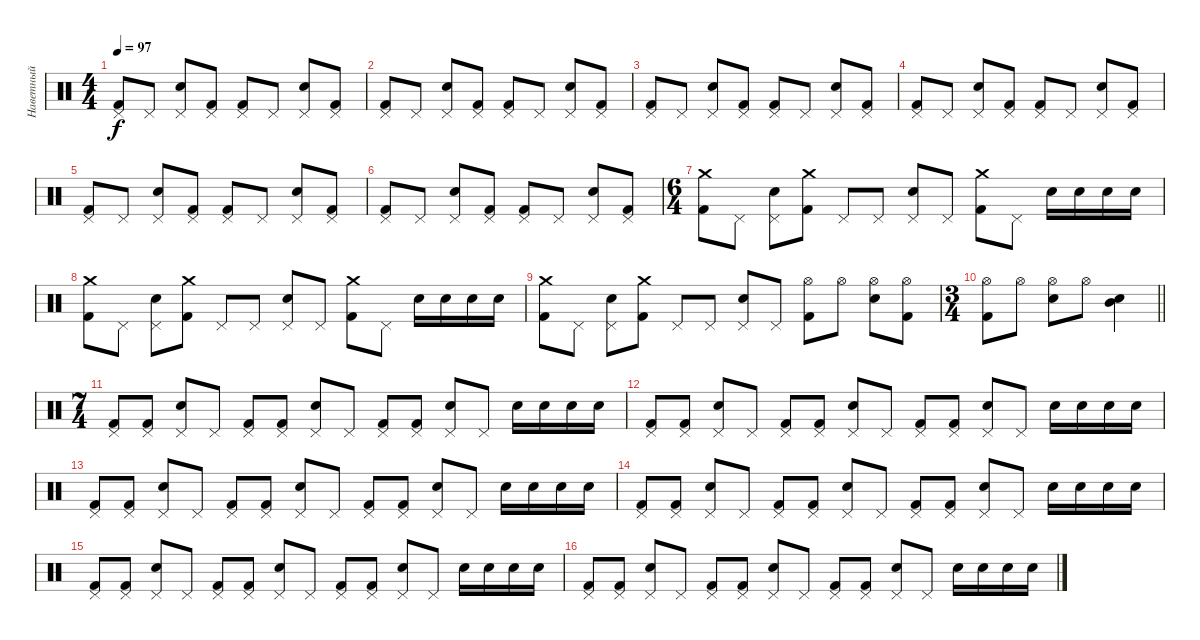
\track ("Наветный" "Наветный") {instrument percussion}
\staff {score}
\articulation defaults
\ts (4 4)
\tempo 97
\clef neutral
\ks c
("Pedal Hi-Hat (hit)" "Kick (hit) 2").8{dy f} "Pedal Hi-Hat (hit)".8 ("Pedal Hi-Hat (hit)" "Electric Snare (hit)").8 ("Pedal Hi-Hat (hit)" "Kick (hit) 2").8 ("Pedal Hi-Hat (hit)" "Kick (hit) 2").8 "Pedal Hi-Hat (hit)".8 ("Pedal Hi-Hat (hit)" "Electric Snare (hit)").8 ("Pedal Hi-Hat (hit)" "Kick (hit) 2").8 |
("Pedal Hi-Hat (hit)" "Kick (hit) 2").8 "Pedal Hi-Hat (hit)".8 ("Pedal Hi-Hat (hit)" "Electric Snare (hit)").8 ("Pedal Hi-Hat (hit)" "Kick (hit) 2").8 ("Pedal Hi-Hat (hit)" "Kick (hit) 2").8 "Pedal Hi-Hat (hit)".8 ("Pedal Hi-Hat (hit)" "Electric Snare (hit)").8 ("Pedal Hi-Hat (hit)" "Kick (hit) 2").8 |
("Pedal Hi-Hat (hit)" "Kick (hit) 2").8 "Pedal Hi-Hat (hit)".8 ("Pedal Hi-Hat (hit)" "Electric Snare (hit)").8 ("Pedal Hi-Hat (hit)" "Kick (hit) 2").8 ("Pedal Hi-Hat (hit)" "Kick (hit) 2").8 "Pedal Hi-Hat (hit)".8 ("Pedal Hi-Hat (hit)" "Electric Snare (hit)").8 ("Pedal Hi-Hat (hit)" "Kick (hit) 2").8 |
("Pedal Hi-Hat (hit)" "Kick (hit) 2").8 "Pedal Hi-Hat (hit)".8 ("Pedal Hi-Hat (hit)" "Electric Snare (hit)").8 ("Pedal Hi-Hat (hit)" "Kick (hit) 2").8 ("Pedal Hi-Hat (hit)" "Kick (hit) 2").8 "Pedal Hi-Hat (hit)".8 ("Pedal Hi-Hat (hit)" "Electric Snare (hit)").8 ("Pedal Hi-Hat (hit)" "Kick (hit) 2").8 |
("Pedal Hi-Hat (hit)" "Kick (hit) 2").8 "Pedal Hi-Hat (hit)".8 ("Pedal Hi-Hat (hit)" "Electric Snare (hit)").8 ("Pedal Hi-Hat (hit)" "Kick (hit) 2").8 ("Pedal Hi-Hat (hit)" "Kick (hit) 2").8 "Pedal Hi-Hat (hit)".8 ("Pedal Hi-Hat (hit)" "Electric Snare (hit)").8 ("Pedal Hi-Hat (hit)" "Kick (hit) 2").8 |
("Pedal Hi-Hat (hit)" "Kick (hit) 2").8 "Pedal Hi-Hat (hit)".8 ("Pedal Hi-Hat (hit)" "Electric Snare (hit)").8 ("Pedal Hi-Hat (hit)" "Kick (hit) 2").8 ("Pedal Hi-Hat (hit)" "Kick (hit) 2").8 "Pedal Hi-Hat (hit)".8 ("Pedal Hi-Hat (hit)" "Electric Snare (hit)").8 ("Pedal Hi-Hat (hit)" "Kick (hit) 2").8 |
\ts (6 4)
("Crash medium (hit)" "Kick (hit) 2").8 "Pedal Hi-Hat (hit)".8 ("Pedal Hi-Hat (hit)" "Electric Snare (hit)").8 ("Crash medium (hit)" "Kick (hit) 2").8 "Pedal Hi-Hat (hit)".8 "Pedal Hi-Hat (hit)".8 ("Pedal Hi-Hat (hit)" "Electric Snare (hit)").8 "Pedal Hi-Hat (hit)".8 ("Crash medium (hit)" "Kick (hit) 2").8 "Pedal Hi-Hat (hit)".8 "Electric Snare (hit)".16 "Electric Snare (hit)".16 "Electric Snare (hit)".16 "Electric Snare (hit)".16 |
("Crash medium (hit)" "Kick (hit) 2").8 "Pedal Hi-Hat (hit)".8 ("Pedal Hi-Hat (hit)" "Electric Snare (hit)").8 ("Crash medium (hit)" "Kick (hit) 2").8 "Pedal Hi-Hat (hit)".8 "Pedal Hi-Hat (hit)".8 ("Pedal Hi-Hat (hit)" "Electric Snare (hit)").8 "Pedal Hi-Hat (hit)".8 ("Crash medium (hit)" "Kick (hit) 2").8 "Pedal Hi-Hat (hit)".8 "Electric Snare (hit)".16 "Electric Snare (hit)".16 "Electric Snare (hit)".16 "Electric Snare (hit)".16 |
("Crash medium (hit)" "Kick (hit) 2").8 "Pedal Hi-Hat (hit)".8 ("Pedal Hi-Hat (hit)" "Electric Snare (hit)").8 ("Crash medium (hit)" "Kick (hit) 2").8 "Pedal Hi-Hat (hit)".8 "Pedal Hi-Hat (hit)".8 ("Pedal Hi-Hat (hit)" "Electric Snare (hit)").8 "Pedal Hi-Hat (hit)".8 ("Hi-Hat (open)" "Kick (hit) 2").8 "Hi-Hat (open)".8 ("Hi-Hat (open)" "Electric Snare (hit)").8 ("Hi-Hat (open)" "Kick (hit) 2").8 |
\ts (3 4)
\barLineRight lightlight
("Hi-Hat (open)" "Kick (hit) 2").8 "Hi-Hat (open)".8 ("Hi-Hat (open)" "Electric Snare (hit)").8 "Hi-Hat (open)".8 ("Electric Snare (hit)" "Mid Tom (hit)").4 |
\ts (7 4)
("Pedal Hi-Hat (hit)" "Kick (hit) 2").8 ("Pedal Hi-Hat (hit)" "Kick (hit) 2").8 ("Pedal Hi-Hat (hit)" "Electric Snare (hit)").8 "Pedal Hi-Hat (hit)".8 ("Pedal Hi-Hat (hit)" "Kick (hit) 2").8 ("Pedal Hi-Hat (hit)" "Kick (hit) 2").8 ("Pedal Hi-Hat (hit)" "Electric Snare (hit)").8 "Pedal Hi-Hat (hit)".8 ("Pedal Hi-Hat (hit)" "Kick (hit) 2").8 ("Pedal Hi-Hat (hit)" "Kick (hit) 2").8 ("Pedal Hi-Hat (hit)" "Electric Snare (hit)").8 "Pedal Hi-Hat (hit)".8 "Electric Snare (hit)".16 "Electric Snare (hit)".16 "Electric Snare (hit)".16 "Electric Snare (hit)".16 |
("Pedal Hi-Hat (hit)" "Kick (hit) 2").8 ("Pedal Hi-Hat (hit)" "Kick (hit) 2").8 ("Pedal Hi-Hat (hit)" "Electric Snare (hit)").8 "Pedal Hi-Hat (hit)".8 ("Pedal Hi-Hat (hit)" "Kick (hit) 2").8 ("Pedal Hi-Hat (hit)" "Kick (hit) 2").8 ("Pedal Hi-Hat (hit)" "Electric Snare (hit)").8 "Pedal Hi-Hat (hit)".8 ("Pedal Hi-Hat (hit)" "Kick (hit) 2").8 ("Pedal Hi-Hat (hit)" "Kick (hit) 2").8 ("Pedal Hi-Hat (hit)" "Electric Snare (hit)").8 "Pedal Hi-Hat (hit)".8 "Electric Snare (hit)".16 "Electric Snare (hit)".16 "Electric Snare (hit)".16 "Electric Snare (hit)".16 |
("Pedal Hi-Hat (hit)" "Kick (hit) 2").8 ("Pedal Hi-Hat (hit)" "Kick (hit) 2").8 ("Pedal Hi-Hat (hit)" "Electric Snare (hit)").8 "Pedal Hi-Hat (hit)".8 ("Pedal Hi-Hat (hit)" "Kick (hit) 2").8 ("Pedal Hi-Hat (hit)" "Kick (hit) 2").8 ("Pedal Hi-Hat (hit)" "Electric Snare (hit)").8 "Pedal Hi-Hat (hit)".8 ("Pedal Hi-Hat (hit)" "Kick (hit) 2").8 ("Pedal Hi-Hat (hit)" "Kick (hit) 2").8 ("Pedal Hi-Hat (hit)" "Electric Snare (hit)").8 "Pedal Hi-Hat (hit)".8 "Electric Snare (hit)".16 "Electric Snare (hit)".16 "Electric Snare (hit)".16 "Electric Snare (hit)".16 |
("Pedal Hi-Hat (hit)" "Kick (hit) 2").8 ("Pedal Hi-Hat (hit)" "Kick (hit) 2").8 ("Pedal Hi-Hat (hit)" "Electric Snare (hit)").8 "Pedal Hi-Hat (hit)".8 ("Pedal Hi-Hat (hit)" "Kick (hit) 2").8 ("Pedal Hi-Hat (hit)" "Kick (hit) 2").8 ("Pedal Hi-Hat (hit)" "Electric Snare (hit)").8 "Pedal Hi-Hat (hit)".8 ("Pedal Hi-Hat (hit)" "Kick (hit) 2").8 ("Pedal Hi-Hat (hit)" "Kick (hit) 2").8 ("Pedal Hi-Hat (hit)" "Electric Snare (hit)").8 "Pedal Hi-Hat (hit)".8 "Electric Snare (hit)".16 "Electric Snare (hit)".16 "Electric Snare (hit)".16 "Electric Snare (hit)".16 |
("Pedal Hi-Hat (hit)" "Kick (hit) 2").8 ("Pedal Hi-Hat (hit)" "Kick (hit) 2").8 ("Pedal Hi-Hat (hit)" "Electric Snare (hit)").8 "Pedal Hi-Hat (hit)".8 ("Pedal Hi-Hat (hit)" "Kick (hit) 2").8 ("Pedal Hi-Hat (hit)" "Kick (hit) 2").8 ("Pedal Hi-Hat (hit)" "Electric Snare (hit)").8 "Pedal Hi-Hat (hit)".8 ("Pedal Hi-Hat (hit)" "Kick (hit) 2").8 ("Pedal Hi-Hat (hit)" "Kick (hit) 2").8 ("Pedal Hi-Hat (hit)" "Electric Snare (hit)").8 "Pedal Hi-Hat (hit)".8 "Electric Snare (hit)".16 "Electric Snare (hit)".16 "Electric Snare (hit)".16 "Electric Snare (hit)".16 |
("Pedal Hi-Hat (hit)" "Kick (hit) 2").8 ("Pedal Hi-Hat (hit)" "Kick (hit) 2").8 ("Pedal Hi-Hat (hit)" "Electric Snare (hit)").8 "Pedal Hi-Hat (hit)".8 ("Pedal Hi-Hat (hit)" "Kick (hit) 2").8 ("Pedal Hi-Hat (hit)" "Kick (hit) 2").8 ("Pedal Hi-Hat (hit)" "Electric Snare (hit)").8 "Pedal Hi-Hat (hit)".8 ("Pedal Hi-Hat (hit)" "Kick (hit) 2").8 ("Pedal Hi-Hat (hit)" "Kick (hit) 2").8 ("Pedal Hi-Hat (hit)" "Electric Snare (hit)").8 "Pedal Hi-Hat (hit)".8 "Electric Snare (hit)".16 "Electric Snare (hit)".16 "Electric Snare (hit)".16 "Electric Snare (hit)".16
